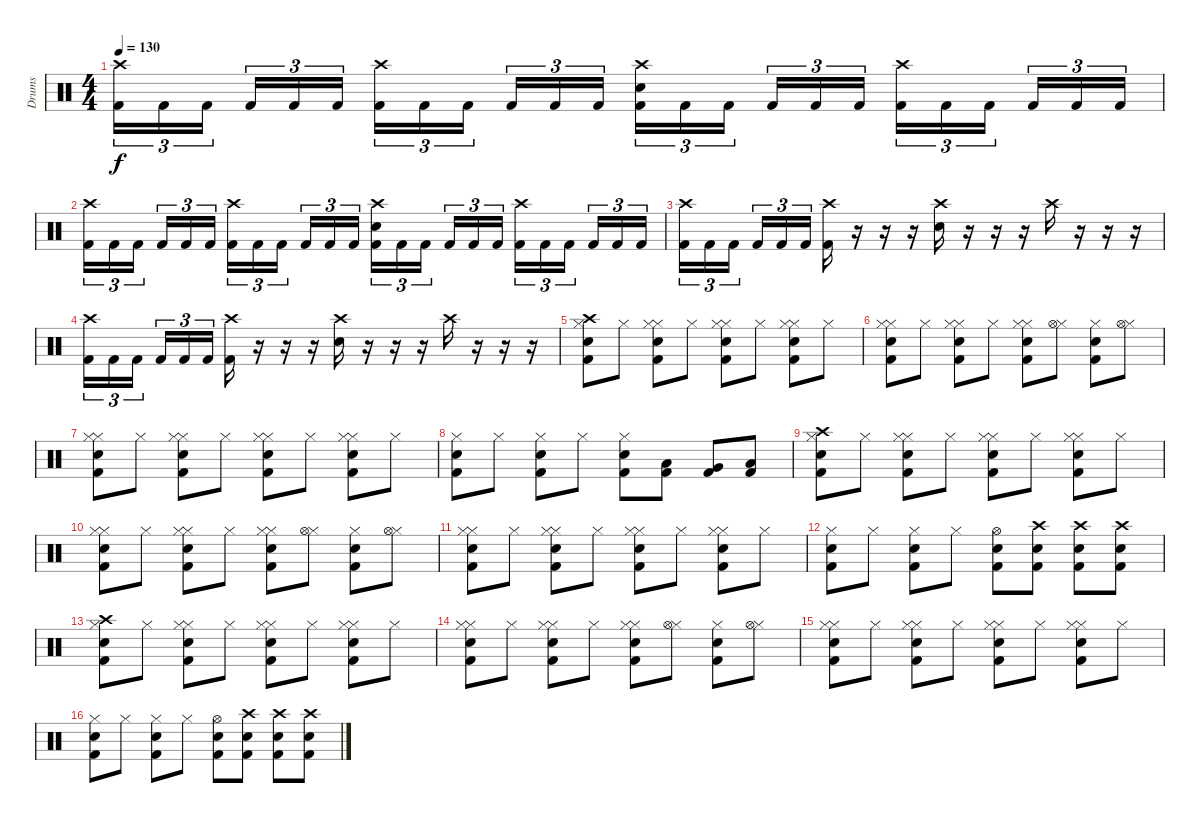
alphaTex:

\track ("Drums" "Drums") {instrument percussion}
\staff {score}
\articulation defaults
\ts (4 4)
\tempo 130
\clef neutral
\ks c
("Crash high (hit)" "Kick (hit) 2").16{tu (3 2) dy f} "Kick (hit) 2".16{tu (3 2)} "Kick (hit) 2".16{tu (3 2)} "Kick (hit) 2".16{tu (3 2)} "Kick (hit) 2".16{tu (3 2)} "Kick (hit) 2".16{tu (3 2)} ("Crash high (hit)" "Kick (hit) 2").16{tu (3 2)} "Kick (hit) 2".16{tu (3 2)} "Kick (hit) 2".16{tu (3 2)} "Kick (hit) 2".16{tu (3 2)} "Kick (hit) 2".16{tu (3 2)} "Kick (hit) 2".16{tu (3 2)} ("Crash high (hit)" "Electric Snare (hit)" "Kick (hit) 2").16{tu (3 2)} "Kick (hit) 2".16{tu (3 2)} "Kick (hit) 2".16{tu (3 2)} "Kick (hit) 2".16{tu (3 2)} "Kick (hit) 2".16{tu (3 2)} "Kick (hit) 2".16{tu (3 2)} ("Crash high (hit)" "Kick (hit) 2").16{tu (3 2)} "Kick (hit) 2".16{tu (3 2)} "Kick (hit) 2".16{tu (3 2)} "Kick (hit) 2".16{tu (3 2)} "Kick (hit) 2".16{tu (3 2)} "Kick (hit) 2".16{tu (3 2)} |
("Crash high (hit)" "Kick (hit) 2").16{tu (3 2)} "Kick (hit) 2".16{tu (3 2)} "Kick (hit) 2".16{tu (3 2)} "Kick (hit) 2".16{tu (3 2)} "Kick (hit) 2".16{tu (3 2)} "Kick (hit) 2".16{tu (3 2)} ("Crash high (hit)" "Kick (hit) 2").16{tu (3 2)} "Kick (hit) 2".16{tu (3 2)} "Kick (hit) 2".16{tu (3 2)} "Kick (hit) 2".16{tu (3 2)} "Kick (hit) 2".16{tu (3 2)} "Kick (hit) 2".16{tu (3 2)} ("Crash high (hit)" "Electric Snare (hit)" "Kick (hit) 2").16{tu (3 2)} "Kick (hit) 2".16{tu (3 2)} "Kick (hit) 2".16{tu (3 2)} "Kick (hit) 2".16{tu (3 2)} "Kick (hit) 2".16{tu (3 2)} "Kick (hit) 2".16{tu (3 2)} ("Crash high (hit)" "Kick (hit) 2").16{tu (3 2)} "Kick (hit) 2".16{tu (3 2)} "Kick (hit) 2".16{tu (3 2)} "Kick (hit) 2".16{tu (3 2)} "Kick (hit) 2".16{tu (3 2)} "Kick (hit) 2".16{tu (3 2)} |
("Crash high (hit)" "Kick (hit) 2").16{tu (3 2)} "Kick (hit) 2".16{tu (3 2)} "Kick (hit) 2".16{tu (3 2)} "Kick (hit) 2".16{tu (3 2)} "Kick (hit) 2".16{tu (3 2)} "Kick (hit) 2".16{tu (3 2)} ("Crash high (hit)" "Kick (hit) 2").16 r.16 r.16 r.16 ("Crash high (hit)" "Electric Snare (hit)").16 r.16 r.16 r.16 "Crash high (hit)".16 r.16 r.16 r.16 |
("Crash high (hit)" "Kick (hit) 2").16{tu (3 2)} "Kick (hit) 2".16{tu (3 2)} "Kick (hit) 2".16{tu (3 2)} "Kick (hit) 2".16{tu (3 2)} "Kick (hit) 2".16{tu (3 2)} "Kick (hit) 2".16{tu (3 2)} ("Crash high (hit)" "Kick (hit) 2").16 r.16 r.16 r.16 ("Crash high (hit)" "Electric Snare (hit)").16 r.16 r.16 r.16 "Crash high (hit)".16 r.16 r.16 r.16 |
("Hi-Hat (closed)" "Crash high (hit)" "Electric Snare (hit)" "Kick (hit) 2").8 "Hi-Hat (closed)".8 ("Hi-Hat (closed)" "Hi-Hat (closed)" "Electric Snare (hit)" "Kick (hit) 2").8 "Hi-Hat (closed)".8 ("Hi-Hat (closed)" "Hi-Hat (closed)" "Electric Snare (hit)" "Kick (hit) 2").8 "Hi-Hat (closed)".8 ("Hi-Hat (closed)" "Hi-Hat (closed)" "Electric Snare (hit)" "Kick (hit) 2").8 "Hi-Hat (closed)".8 |
("Hi-Hat (closed)" "Hi-Hat (closed)" "Electric Snare (hit)" "Kick (hit) 2").8 "Hi-Hat (closed)".8 ("Hi-Hat (closed)" "Hi-Hat (closed)" "Electric Snare (hit)" "Kick (hit) 2").8 "Hi-Hat (closed)".8 ("Hi-Hat (closed)" "Hi-Hat (closed)" "Electric Snare (hit)" "Kick (hit) 2").8 ("Hi-Hat (closed)" "Hi-Hat (open)").8 ("Hi-Hat (closed)" "Electric Snare (hit)" "Kick (hit) 2").8 ("Hi-Hat (closed)" "Hi-Hat (open)").8 |
("Hi-Hat (closed)" "Hi-Hat (closed)" "Electric Snare (hit)" "Kick (hit) 2").8 "Hi-Hat (closed)".8 ("Hi-Hat (closed)" "Hi-Hat (closed)" "Electric Snare (hit)" "Kick (hit) 2").8 "Hi-Hat (closed)".8 ("Hi-Hat (closed)" "Hi-Hat (closed)" "Electric Snare (hit)" "Kick (hit) 2").8 "Hi-Hat (closed)".8 ("Hi-Hat (closed)" "Hi-Hat (closed)" "Electric Snare (hit)" "Kick (hit) 2").8 "Hi-Hat (closed)".8 |
("Hi-Hat (closed)" "Electric Snare (hit)" "Kick (hit) 2").8 "Hi-Hat (closed)".8 ("Hi-Hat (closed)" "Electric Snare (hit)" "Kick (hit) 2").8 "Hi-Hat (closed)".8 ("Hi-Hat (closed)" "Electric Snare (hit)" "Kick (hit) 2").8 ("Low Tom (hit)" "Kick (hit) 2").8 ("Very Low Tom (hit)" "Kick (hit) 2").8 ("Low Floor Tom (hit)" "Kick (hit) 2").8 |
("Hi-Hat (closed)" "Crash high (hit)" "Electric Snare (hit)" "Kick (hit) 2").8 "Hi-Hat (closed)".8 ("Hi-Hat (closed)" "Hi-Hat (closed)" "Electric Snare (hit)" "Kick (hit) 2").8 "Hi-Hat (closed)".8 ("Hi-Hat (closed)" "Hi-Hat (closed)" "Electric Snare (hit)" "Kick (hit) 2").8 "Hi-Hat (closed)".8 ("Hi-Hat (closed)" "Hi-Hat (closed)" "Electric Snare (hit)" "Kick (hit) 2").8 "Hi-Hat (closed)".8 |
("Hi-Hat (closed)" "Hi-Hat (closed)" "Electric Snare (hit)" "Kick (hit) 2").8 "Hi-Hat (closed)".8 ("Hi-Hat (closed)" "Hi-Hat (closed)" "Electric Snare (hit)" "Kick (hit) 2").8 "Hi-Hat (closed)".8 ("Hi-Hat (closed)" "Hi-Hat (closed)" "Electric Snare (hit)" "Kick (hit) 2").8 ("Hi-Hat (closed)" "Hi-Hat (open)").8 ("Hi-Hat (closed)" "Electric Snare (hit)" "Kick (hit) 2").8 ("Hi-Hat (closed)" "Hi-Hat (open)").8 |
("Hi-Hat (closed)" "Hi-Hat (closed)" "Electric Snare (hit)" "Kick (hit) 2").8 "Hi-Hat (closed)".8 ("Hi-Hat (closed)" "Hi-Hat (closed)" "Electric Snare (hit)" "Kick (hit) 2").8 "Hi-Hat (closed)".8 ("Hi-Hat (closed)" "Hi-Hat (closed)" "Electric Snare (hit)" "Kick (hit) 2").8 "Hi-Hat (closed)".8 ("Hi-Hat (closed)" "Hi-Hat (closed)" "Electric Snare (hit)" "Kick (hit) 2").8 "Hi-Hat (closed)".8 |
("Hi-Hat (closed)" "Electric Snare (hit)" "Kick (hit) 2").8 "Hi-Hat (closed)".8 ("Hi-Hat (closed)" "Electric Snare (hit)" "Kick (hit) 2").8 "Hi-Hat (closed)".8 ("Hi-Hat (open)" "Electric Snare (hit)" "Kick (hit) 2").8 ("Crash high (hit)" "Electric Snare (hit)" "Kick (hit) 2").8 ("Crash high (hit)" "Electric Snare (hit)" "Kick (hit) 2").8 ("Crash high (hit)" "Electric Snare (hit)" "Kick (hit) 2").8 |
("Hi-Hat (closed)" "Crash high (hit)" "Electric Snare (hit)" "Kick (hit) 2").8 "Hi-Hat (closed)".8 ("Hi-Hat (closed)" "Hi-Hat (closed)" "Electric Snare (hit)" "Kick (hit) 2").8 "Hi-Hat (closed)".8 ("Hi-Hat (closed)" "Hi-Hat (closed)" "Electric Snare (hit)" "Kick (hit) 2").8 "Hi-Hat (closed)".8 ("Hi-Hat (closed)" "Hi-Hat (closed)" "Electric Snare (hit)" "Kick (hit) 2").8 "Hi-Hat (closed)".8 |
("Hi-Hat (closed)" "Hi-Hat (closed)" "Electric Snare (hit)" "Kick (hit) 2").8 "Hi-Hat (closed)".8 ("Hi-Hat (closed)" "Hi-Hat (closed)" "Electric Snare (hit)" "Kick (hit) 2").8 "Hi-Hat (closed)".8 ("Hi-Hat (closed)" "Hi-Hat (closed)" "Electric Snare (hit)" "Kick (hit) 2").8 ("Hi-Hat (closed)" "Hi-Hat (open)").8 ("Hi-Hat (closed)" "Electric Snare (hit)" "Kick (hit) 2").8 ("Hi-Hat (closed)" "Hi-Hat (open)").8 |
("Hi-Hat (closed)" "Hi-Hat (closed)" "Electric Snare (hit)" "Kick (hit) 2").8 "Hi-Hat (closed)".8 ("Hi-Hat (closed)" "Hi-Hat (closed)" "Electric Snare (hit)" "Kick (hit) 2").8 "Hi-Hat (closed)".8 ("Hi-Hat (closed)" "Hi-Hat (closed)" "Electric Snare (hit)" "Kick (hit) 2").8 "Hi-Hat (closed)".8 ("Hi-Hat (closed)" "Hi-Hat (closed)" "Electric Snare (hit)" "Kick (hit) 2").8 "Hi-Hat (closed)".8 |
("Hi-Hat (closed)" "Electric Snare (hit)" "Kick (hit) 2").8 "Hi-Hat (closed)".8 ("Hi-Hat (closed)" "Electric Snare (hit)" "Kick (hit) 2").8 "Hi-Hat (closed)".8 ("Hi-Hat (open)" "Electric Snare (hit)" "Kick (hit) 2").8 ("Crash high (hit)" "Electric Snare (hit)" "Kick (hit) 2").8 ("Crash high (hit)" "Electric Snare (hit)" "Kick (hit) 2").8 ("Crash high (hit)" "Electric Snare (hit)" "Kick (hit) 2").8
